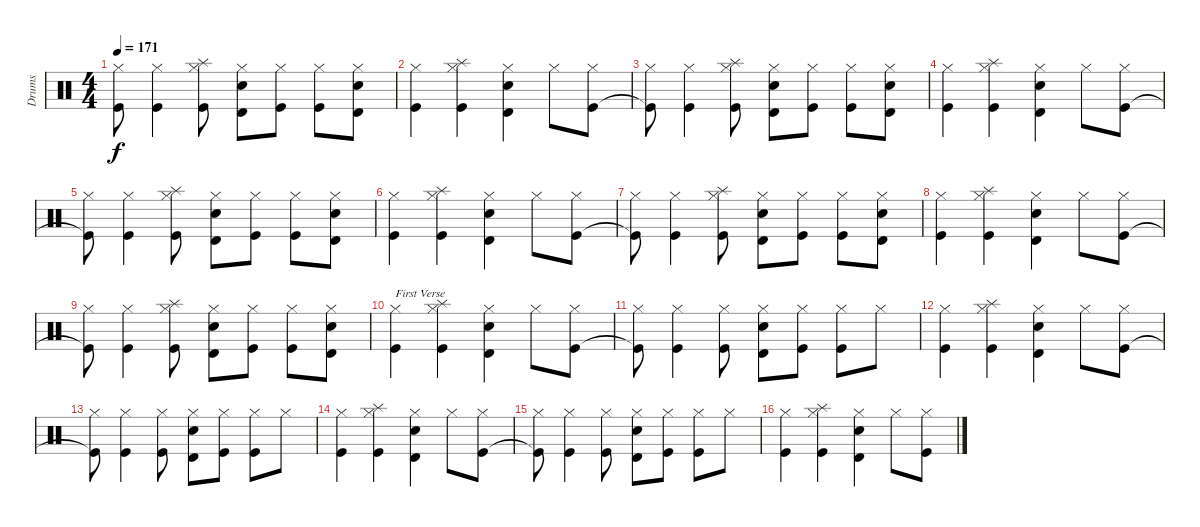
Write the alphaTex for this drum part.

\track ("Drums" "Drums") {instrument percussion}
\staff {score}
\articulation defaults
\ts (4 4)
\tempo 171
\clef neutral
\ks c
("Hi-Hat (closed)" "Kick (hit)"{t}).8{dy f} ("Hi-Hat (closed)" "Kick (hit)").4 ("Hi-Hat (closed)" "Splash (hit)" "Kick (hit)").8 ("Hi-Hat (closed)" "Timbale high (hit)" "Electric Snare (hit)").8 ("Hi-Hat (closed)" "Kick (hit)").8 ("Hi-Hat (closed)" "Kick (hit)").8 ("Hi-Hat (closed)" "Timbale high (hit)" "Electric Snare (hit)").8 |
("Hi-Hat (closed)" "Kick (hit)").4 ("Hi-Hat (closed)" "Splash (hit)" "Kick (hit)").4 ("Hi-Hat (closed)" "Timbale high (hit)" "Electric Snare (hit)").4 "Hi-Hat (closed)".8 ("Hi-Hat (closed)" "Kick (hit)").8 |
("Hi-Hat (closed)" "Kick (hit)"{t}).8 ("Hi-Hat (closed)" "Kick (hit)").4 ("Hi-Hat (closed)" "Splash (hit)" "Kick (hit)").8 ("Hi-Hat (closed)" "Timbale high (hit)" "Electric Snare (hit)").8 ("Hi-Hat (closed)" "Kick (hit)").8 ("Hi-Hat (closed)" "Kick (hit)").8 ("Hi-Hat (closed)" "Timbale high (hit)" "Electric Snare (hit)").8 |
("Hi-Hat (closed)" "Kick (hit)").4 ("Hi-Hat (closed)" "Splash (hit)" "Kick (hit)").4 ("Hi-Hat (closed)" "Timbale high (hit)" "Electric Snare (hit)").4 "Hi-Hat (closed)".8 ("Hi-Hat (closed)" "Kick (hit)").8 |
("Hi-Hat (closed)" "Kick (hit)"{t}).8 ("Hi-Hat (closed)" "Kick (hit)").4 ("Hi-Hat (closed)" "Splash (hit)" "Kick (hit)").8 ("Hi-Hat (closed)" "Timbale high (hit)" "Electric Snare (hit)").8 ("Hi-Hat (closed)" "Kick (hit)").8 ("Hi-Hat (closed)" "Kick (hit)").8 ("Hi-Hat (closed)" "Timbale high (hit)" "Electric Snare (hit)").8 |
("Hi-Hat (closed)" "Kick (hit)").4 ("Hi-Hat (closed)" "Splash (hit)" "Kick (hit)").4 ("Hi-Hat (closed)" "Timbale high (hit)" "Electric Snare (hit)").4 "Hi-Hat (closed)".8 ("Hi-Hat (closed)" "Kick (hit)").8 |
("Hi-Hat (closed)" "Kick (hit)"{t}).8 ("Hi-Hat (closed)" "Kick (hit)").4 ("Hi-Hat (closed)" "Splash (hit)" "Kick (hit)").8 ("Hi-Hat (closed)" "Timbale high (hit)" "Electric Snare (hit)").8 ("Hi-Hat (closed)" "Kick (hit)").8 ("Hi-Hat (closed)" "Kick (hit)").8 ("Hi-Hat (closed)" "Timbale high (hit)" "Electric Snare (hit)").8 |
("Hi-Hat (closed)" "Kick (hit)").4 ("Hi-Hat (closed)" "Splash (hit)" "Kick (hit)").4 ("Hi-Hat (closed)" "Timbale high (hit)" "Electric Snare (hit)").4 "Hi-Hat (closed)".8 ("Hi-Hat (closed)" "Kick (hit)").8 |
("Hi-Hat (closed)" "Kick (hit)"{t}).8 ("Hi-Hat (closed)" "Kick (hit)").4 ("Hi-Hat (closed)" "Splash (hit)" "Kick (hit)").8 ("Hi-Hat (closed)" "Timbale high (hit)" "Electric Snare (hit)").8 ("Hi-Hat (closed)" "Kick (hit)").8 ("Hi-Hat (closed)" "Kick (hit)").8 ("Hi-Hat (closed)" "Timbale high (hit)" "Electric Snare (hit)").8 |
("Hi-Hat (closed)" "Kick (hit)").4{txt "First Verse"} ("Hi-Hat (closed)" "Splash (hit)" "Kick (hit)").4 ("Hi-Hat (closed)" "Timbale high (hit)" "Electric Snare (hit)").4 "Hi-Hat (closed)".8 ("Hi-Hat (closed)" "Kick (hit)").8 |
("Hi-Hat (closed)" "Kick (hit)"{t}).8 ("Hi-Hat (closed)" "Kick (hit)").4 ("Hi-Hat (closed)" "Kick (hit)").8 ("Hi-Hat (closed)" "Timbale high (hit)" "Electric Snare (hit)").8 ("Hi-Hat (closed)" "Kick (hit)").8 ("Hi-Hat (closed)" "Kick (hit)").8 "Hi-Hat (closed)".8 |
("Hi-Hat (closed)" "Kick (hit)").4 ("Hi-Hat (closed)" "Splash (hit)" "Kick (hit)").4 ("Hi-Hat (closed)" "Timbale high (hit)" "Electric Snare (hit)").4 "Hi-Hat (closed)".8 ("Hi-Hat (closed)" "Kick (hit)").8 |
("Hi-Hat (closed)" "Kick (hit)"{t}).8 ("Hi-Hat (closed)" "Kick (hit)").4 ("Hi-Hat (closed)" "Kick (hit)").8 ("Hi-Hat (closed)" "Timbale high (hit)" "Electric Snare (hit)").8 ("Hi-Hat (closed)" "Kick (hit)").8 ("Hi-Hat (closed)" "Kick (hit)").8 "Hi-Hat (closed)".8 |
("Hi-Hat (closed)" "Kick (hit)").4 ("Hi-Hat (closed)" "Splash (hit)" "Kick (hit)").4 ("Hi-Hat (closed)" "Timbale high (hit)" "Electric Snare (hit)").4 "Hi-Hat (closed)".8 ("Hi-Hat (closed)" "Kick (hit)").8 |
("Hi-Hat (closed)" "Kick (hit)"{t}).8 ("Hi-Hat (closed)" "Kick (hit)").4 ("Hi-Hat (closed)" "Kick (hit)").8 ("Hi-Hat (closed)" "Timbale high (hit)" "Electric Snare (hit)").8 ("Hi-Hat (closed)" "Kick (hit)").8 ("Hi-Hat (closed)" "Kick (hit)").8 "Hi-Hat (closed)".8 |
("Hi-Hat (closed)" "Kick (hit)").4 ("Hi-Hat (closed)" "Splash (hit)" "Kick (hit)").4 ("Hi-Hat (closed)" "Timbale high (hit)" "Electric Snare (hit)").4 "Hi-Hat (closed)".8 ("Hi-Hat (closed)" "Kick (hit)").8
